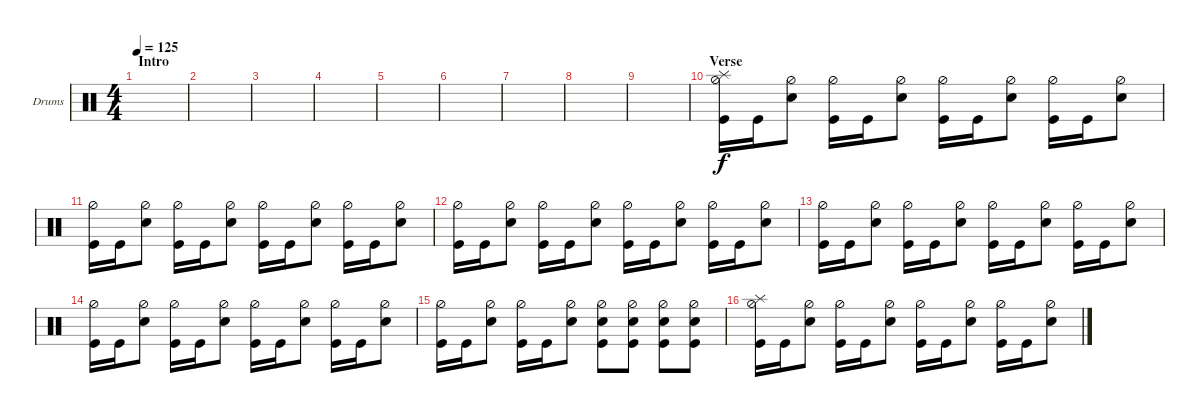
\defaultSystemsLayout 4
\bracketExtendMode groupsimilarinstruments
\firstSystemTrackNameOrientation horizontal
\otherSystemsTrackNameOrientation horizontal
\track ("Drumkit" "Drums") {instrument percussion}
\staff {score}
\articulation defaults
\ts (4 4)
\section ("" "Intro")
\tempo 125
\clef neutral
\ks c
|
|
|
|
|
|
|
|
|
\section ("" "Verse")
("Hi-Hat (half)" "Kick (hit)" "Splash (hit)").16 "Kick (hit)".16 ("Hi-Hat (half)" "Snare (hit) 2").8 ("Hi-Hat (half)" "Kick (hit)").16 "Kick (hit)".16 ("Hi-Hat (half)" "Snare (hit) 2").8 ("Hi-Hat (half)" "Kick (hit)").16 "Kick (hit)".16 ("Hi-Hat (half)" "Snare (hit) 2").8 ("Hi-Hat (half)" "Kick (hit)").16 "Kick (hit)".16 ("Hi-Hat (half)" "Snare (hit) 2").8 |
("Hi-Hat (half)" "Kick (hit)").16 "Kick (hit)".16 ("Hi-Hat (half)" "Snare (hit) 2").8 ("Hi-Hat (half)" "Kick (hit)").16 "Kick (hit)".16 ("Hi-Hat (half)" "Snare (hit) 2").8 ("Hi-Hat (half)" "Kick (hit)").16 "Kick (hit)".16 ("Hi-Hat (half)" "Snare (hit) 2").8 ("Hi-Hat (half)" "Kick (hit)").16 "Kick (hit)".16 ("Hi-Hat (half)" "Snare (hit) 2").8 |
("Hi-Hat (half)" "Kick (hit)").16 "Kick (hit)".16 ("Hi-Hat (half)" "Snare (hit) 2").8 ("Hi-Hat (half)" "Kick (hit)").16 "Kick (hit)".16 ("Hi-Hat (half)" "Snare (hit) 2").8 ("Hi-Hat (half)" "Kick (hit)").16 "Kick (hit)".16 ("Hi-Hat (half)" "Snare (hit) 2").8 ("Hi-Hat (half)" "Kick (hit)").16 "Kick (hit)".16 ("Hi-Hat (half)" "Snare (hit) 2").8 |
("Hi-Hat (half)" "Kick (hit)").16 "Kick (hit)".16 ("Hi-Hat (half)" "Snare (hit) 2").8 ("Hi-Hat (half)" "Kick (hit)").16 "Kick (hit)".16 ("Hi-Hat (half)" "Snare (hit) 2").8 ("Hi-Hat (half)" "Kick (hit)").16 "Kick (hit)".16 ("Hi-Hat (half)" "Snare (hit) 2").8 ("Hi-Hat (half)" "Kick (hit)").16 "Kick (hit)".16 ("Hi-Hat (half)" "Snare (hit) 2").8 |
("Hi-Hat (half)" "Kick (hit)").16 "Kick (hit)".16 ("Hi-Hat (half)" "Snare (hit) 2").8 ("Hi-Hat (half)" "Kick (hit)").16 "Kick (hit)".16 ("Hi-Hat (half)" "Snare (hit) 2").8 ("Hi-Hat (half)" "Kick (hit)").16 "Kick (hit)".16 ("Hi-Hat (half)" "Snare (hit) 2").8 ("Hi-Hat (half)" "Kick (hit)").16 "Kick (hit)".16 ("Hi-Hat (half)" "Snare (hit) 2").8 |
("Hi-Hat (half)" "Kick (hit)").16 "Kick (hit)".16 ("Hi-Hat (half)" "Snare (hit) 2").8 ("Hi-Hat (half)" "Kick (hit)").16 "Kick (hit)".16 ("Hi-Hat (half)" "Snare (hit) 2").8 ("Hi-Hat (half)" "Kick (hit)" "Snare (hit) 2").8 ("Hi-Hat (half)" "Kick (hit)" "Snare (hit) 2").8 ("Hi-Hat (half)" "Kick (hit)" "Snare (hit) 2").8 ("Hi-Hat (half)" "Snare (hit) 2" "Kick (hit)").8 |
("Hi-Hat (half)" "Kick (hit)" "Splash (hit)").16 "Kick (hit)".16 ("Hi-Hat (half)" "Snare (hit) 2").8 ("Hi-Hat (half)" "Kick (hit)").16 "Kick (hit)".16 ("Hi-Hat (half)" "Snare (hit) 2").8 ("Hi-Hat (half)" "Kick (hit)").16 "Kick (hit)".16 ("Hi-Hat (half)" "Snare (hit) 2").8 ("Hi-Hat (half)" "Kick (hit)").16 "Kick (hit)".16 ("Hi-Hat (half)" "Snare (hit) 2").8
